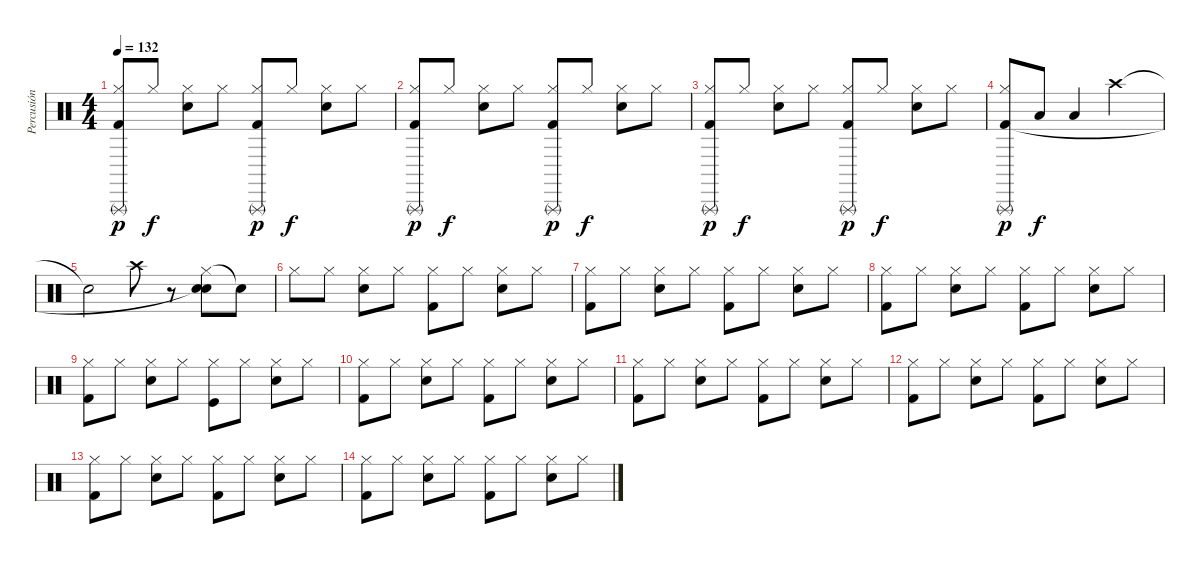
\track ("Percusión" "Percusión") {instrument percussion}
\staff {score}
\articulation defaults
\ts (4 4)
\tempo 132
\clef neutral
\ks c
("Triangle (rnute)" "Hi-Hat (closed)" "Kick (hit) 2").8{dy p} "Hi-Hat (closed)".8{dy f} ("Hi-Hat (closed)" "Electric Snare (hit)").8 "Hi-Hat (closed)".8 ("Triangle (rnute)" "Hi-Hat (closed)" "Kick (hit) 2").8{dy p} "Hi-Hat (closed)".8{dy f} ("Hi-Hat (closed)" "Electric Snare (hit)").8 "Hi-Hat (closed)".8 |
("Triangle (rnute)" "Hi-Hat (closed)" "Kick (hit) 2").8{dy p} "Hi-Hat (closed)".8{dy f} ("Hi-Hat (closed)" "Electric Snare (hit)").8 "Hi-Hat (closed)".8 ("Triangle (rnute)" "Hi-Hat (closed)" "Kick (hit) 2").8{dy p} "Hi-Hat (closed)".8{dy f} ("Hi-Hat (closed)" "Electric Snare (hit)").8 "Hi-Hat (closed)".8 |
("Triangle (rnute)" "Hi-Hat (closed)" "Kick (hit) 2").8{dy p} "Hi-Hat (closed)".8{dy f} ("Hi-Hat (closed)" "Electric Snare (hit)").8 "Hi-Hat (closed)".8 ("Triangle (rnute)" "Hi-Hat (closed)" "Kick (hit) 2").8{dy p} "Hi-Hat (closed)".8{dy f} ("Hi-Hat (closed)" "Electric Snare (hit)").8 "Hi-Hat (closed)".8 |
("Triangle (rnute)" "Hi-Hat (closed)" "Kick (hit) 2").8{dy p} "Low Tom (hit)".8{dy f} "Low Floor Tom (hit)".4 "Crash high (hit)".2 |
"Snare (hit)"{t}.2 "Crash high (hit)".8 r.8 ("Hi-Hat (closed)" "Electric Snare (hit)" "Snare (hit)"{t}).8 "Snare (hit)"{t}.8 |
"Hi-Hat (closed)".8 "Hi-Hat (closed)".8 ("Hi-Hat (closed)" "Electric Snare (hit)").8 "Hi-Hat (closed)".8 ("Hi-Hat (closed)" "Kick (hit) 2").8 "Hi-Hat (closed)".8 ("Hi-Hat (closed)" "Electric Snare (hit)").8 "Hi-Hat (closed)".8 |
("Hi-Hat (closed)" "Kick (hit) 2").8 "Hi-Hat (closed)".8 ("Hi-Hat (closed)" "Electric Snare (hit)").8 "Hi-Hat (closed)".8 ("Hi-Hat (closed)" "Kick (hit) 2").8 "Hi-Hat (closed)".8 ("Hi-Hat (closed)" "Electric Snare (hit)").8 "Hi-Hat (closed)".8 |
("Hi-Hat (closed)" "Kick (hit) 2").8 "Hi-Hat (closed)".8 ("Hi-Hat (closed)" "Electric Snare (hit)").8 "Hi-Hat (closed)".8 ("Hi-Hat (closed)" "Kick (hit) 2").8 "Hi-Hat (closed)".8 ("Hi-Hat (closed)" "Electric Snare (hit)").8 "Hi-Hat (closed)".8 |
("Hi-Hat (closed)" "Kick (hit) 2").8 "Hi-Hat (closed)".8 ("Hi-Hat (closed)" "Electric Snare (hit)").8 "Hi-Hat (closed)".8 ("Hi-Hat (closed)" "Kick (hit)").8 "Hi-Hat (closed)".8 ("Hi-Hat (closed)" "Electric Snare (hit)").8 "Hi-Hat (closed)".8 |
("Hi-Hat (closed)" "Kick (hit) 2").8 "Hi-Hat (closed)".8 ("Hi-Hat (closed)" "Electric Snare (hit)").8 "Hi-Hat (closed)".8 ("Hi-Hat (closed)" "Kick (hit) 2").8 "Hi-Hat (closed)".8 ("Hi-Hat (closed)" "Electric Snare (hit)").8 "Hi-Hat (closed)".8 |
("Hi-Hat (closed)" "Kick (hit) 2").8 "Hi-Hat (closed)".8 ("Hi-Hat (closed)" "Electric Snare (hit)").8 "Hi-Hat (closed)".8 ("Hi-Hat (closed)" "Kick (hit) 2").8 "Hi-Hat (closed)".8 ("Hi-Hat (closed)" "Electric Snare (hit)").8 "Hi-Hat (closed)".8 |
("Hi-Hat (closed)" "Kick (hit) 2").8 "Hi-Hat (closed)".8 ("Hi-Hat (closed)" "Electric Snare (hit)").8 "Hi-Hat (closed)".8 ("Hi-Hat (closed)" "Kick (hit) 2").8 "Hi-Hat (closed)".8 ("Hi-Hat (closed)" "Electric Snare (hit)").8 "Hi-Hat (closed)".8 |
("Hi-Hat (closed)" "Kick (hit) 2").8 "Hi-Hat (closed)".8 ("Hi-Hat (closed)" "Electric Snare (hit)").8 "Hi-Hat (closed)".8 ("Hi-Hat (closed)" "Kick (hit) 2").8 "Hi-Hat (closed)".8 ("Hi-Hat (closed)" "Electric Snare (hit)").8 "Hi-Hat (closed)".8 |
("Hi-Hat (closed)" "Kick (hit) 2").8 "Hi-Hat (closed)".8 ("Hi-Hat (closed)" "Electric Snare (hit)").8 "Hi-Hat (closed)".8 ("Hi-Hat (closed)" "Kick (hit) 2").8 "Hi-Hat (closed)".8 ("Hi-Hat (closed)" "Electric Snare (hit)").8 "Hi-Hat (closed)".8
